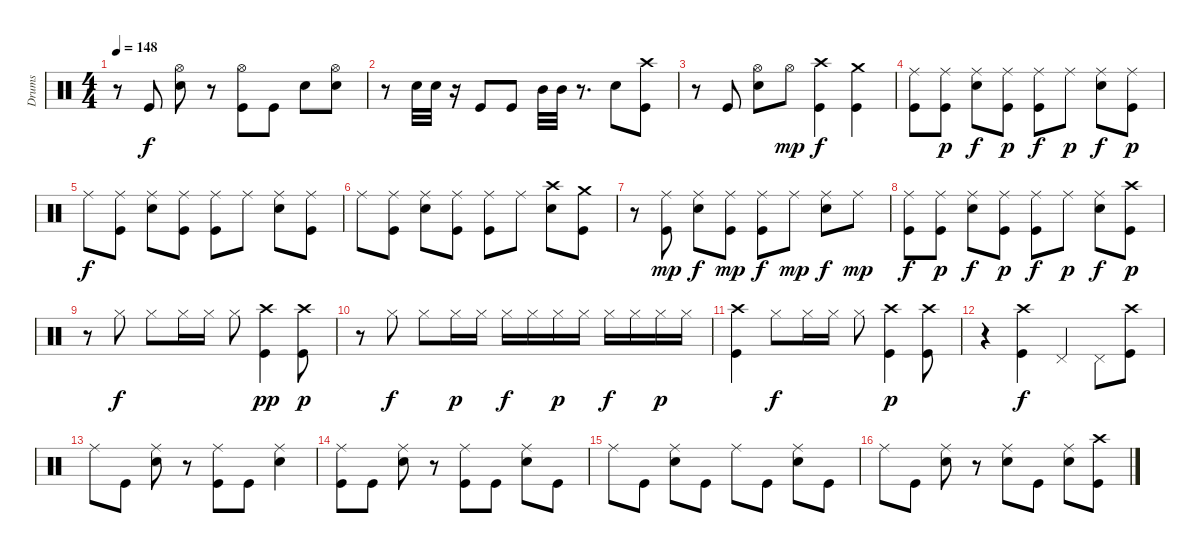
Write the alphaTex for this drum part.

\track ("Drums" "Drums") {instrument percussion}
\staff {score}
\articulation defaults
\ts (4 4)
\tempo 148
\clef neutral
\ks c
r.8{dy f} "Kick (hit)".8 ("Hi-Hat (open)" "Snare (hit) 2").8 r.8 ("Hi-Hat (open)" "Kick (hit)").8 "Kick (hit)".8 "Snare (hit) 2".8 ("Hi-Hat (open)" "Snare (hit) 2").8 |
r.8 "Snare (hit) 2".32 "Snare (hit) 2".32 r.16 "Kick (hit)".8 "Kick (hit)".8 "Mid Tom (hit)".32 "Mid Tom (hit)".32 r.8{d} "Snare (hit) 2".8 ("Crash high (hit)" "Kick (hit)").8 |
r.8 "Kick (hit)".8 ("Hi-Hat (open)" "Snare (hit) 2").8 "Hi-Hat (open)".8{dy mp} ("Crash high (hit)" "Kick (hit)").4{dy f} ("Crash medium (hit)" "Kick (hit)").4 |
("Ride (middle)" "Kick (hit)").8 ("Ride (middle)" "Kick (hit)").8{dy p} ("Ride (middle)" "Snare (hit) 2").8{dy f} ("Ride (middle)" "Kick (hit)").8{dy p} ("Ride (middle)" "Kick (hit)").8{dy f} "Ride (middle)".8{dy p} ("Ride (middle)" "Snare (hit) 2").8{dy f} ("Ride (middle)" "Kick (hit)").8{dy p} |
"Ride (middle)".8{dy f} ("Ride (middle)" "Kick (hit)").8 ("Ride (middle)" "Snare (hit) 2").8 ("Ride (middle)" "Kick (hit)").8 ("Ride (middle)" "Kick (hit)").8 "Ride (middle)".8 ("Ride (middle)" "Snare (hit) 2").8 ("Ride (middle)" "Kick (hit)").8 |
"Ride (middle)".8 ("Ride (middle)" "Kick (hit)").8 ("Ride (middle)" "Snare (hit) 2").8 ("Ride (middle)" "Kick (hit)").8 ("Ride (middle)" "Kick (hit)").8 "Ride (middle)".8 ("Crash high (hit)" "Snare (hit) 2").8 ("Crash medium (hit)" "Kick (hit)").8 |
r.8 ("Ride (middle)" "Kick (hit)").8{dy mp} ("Ride (middle)" "Snare (hit) 2").8{dy f} ("Ride (middle)" "Kick (hit)").8{dy mp} ("Ride (middle)" "Kick (hit)").8{dy f} "Ride (middle)".8{dy mp} ("Ride (middle)" "Snare (hit) 2").8{dy f} "Ride (middle)".8{dy mp} |
("Ride (middle)" "Kick (hit)").8{dy f} ("Ride (middle)" "Kick (hit)").8{dy p} ("Ride (middle)" "Snare (hit) 2").8{dy f} ("Ride (middle)" "Kick (hit)").8{dy p} ("Ride (middle)" "Kick (hit)").8{dy f} "Ride (middle)".8{dy p} ("Ride (middle)" "Snare (hit) 2").8{dy f} ("Crash high (hit)" "Kick (hit)").8{dy p} |
r.8 "Hi-Hat (closed)".8{dy f} "Hi-Hat (closed)".8 "Hi-Hat (closed)".16 "Hi-Hat (closed)".16 "Hi-Hat (closed)".8 ("Crash high (hit)" "Kick (hit)").4{dy pp} ("Crash high (hit)" "Kick (hit)").8{dy p} |
r.8 "Hi-Hat (closed)".8{dy f} "Hi-Hat (closed)".8 "Hi-Hat (closed)".16{dy p} "Hi-Hat (closed)".16 "Hi-Hat (closed)".16{dy f} "Hi-Hat (closed)".16 "Hi-Hat (closed)".16{dy p} "Hi-Hat (closed)".16 "Hi-Hat (closed)".16{dy f} "Hi-Hat (closed)".16 "Hi-Hat (closed)".16{dy p} "Hi-Hat (closed)".16 |
("Crash high (hit)" "Kick (hit)").4 "Hi-Hat (closed)".8{dy f} "Hi-Hat (closed)".16 "Hi-Hat (closed)".16 "Hi-Hat (closed)".8 ("Crash high (hit)" "Kick (hit)").4{dy p} ("Crash high (hit)" "Kick (hit)").8 |
r.4 ("Crash high (hit)" "Kick (hit)").4{dy f} "Pedal Hi-Hat (hit)".4 "Pedal Hi-Hat (hit)".8 ("Crash high (hit)" "Kick (hit)").8 |
"Ride (middle)".8 "Kick (hit)".8 ("Ride (middle)" "Snare (hit) 2").8 r.8 ("Ride (middle)" "Kick (hit)").8 "Kick (hit)".8 ("Ride (middle)" "Snare (hit) 2").4 |
("Ride (middle)" "Kick (hit)").8 "Kick (hit)".8 ("Ride (middle)" "Snare (hit) 2").8 r.8 ("Ride (middle)" "Kick (hit)").8 "Kick (hit)".8 ("Ride (middle)" "Snare (hit) 2").8 "Kick (hit)".8 |
"Ride (middle)".8 "Kick (hit)".8 ("Ride (middle)" "Snare (hit) 2").8 "Kick (hit)".8 "Ride (middle)".8 "Kick (hit)".8 ("Ride (middle)" "Snare (hit) 2").8 "Kick (hit)".8 |
"Ride (middle)".8 "Kick (hit)".8 ("Ride (middle)" "Snare (hit) 2").8 r.8 ("Ride (middle)" "Snare (hit) 2").8 "Kick (hit)".8 ("Ride (middle)" "Snare (hit) 2").8 ("Crash high (hit)" "Kick (hit)").8
